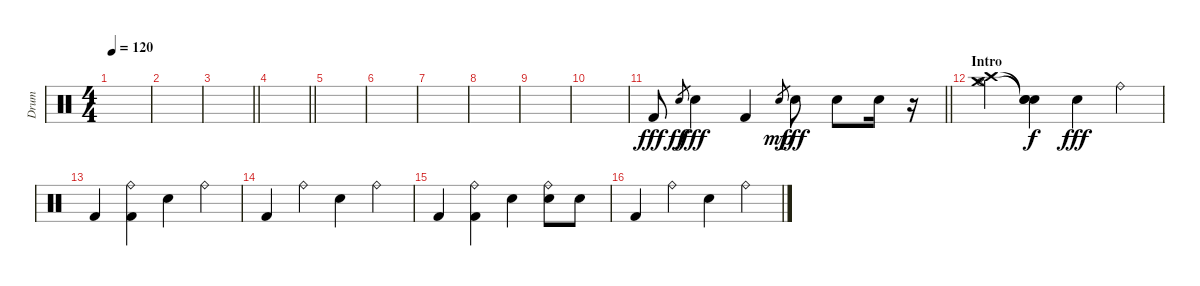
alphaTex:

\track ("Drum" "Drum") {instrument percussion}
\staff {score}
\articulation defaults
\ts (4 4)
\tempo 120
\clef neutral
\ks c
|
|
\barLineRight lightlight
|
\section ("" "")
\barLineRight lightlight
|
|
|
|
|
|
|
\barLineRight lightlight "Kick (hit) 2".8{dy fff} "Electric Snare (hit)".8{gr dy ff} "Electric Snare (hit)".4{dy fff} "Kick (hit) 2".4 "Electric Snare (hit)".8{gr dy mp} "Electric Snare (hit)".8{dy fff} "Electric Snare (hit)".8 "Electric Snare (hit)".16
r.16 |
\section ("" "Intro")
("Hi-Hat (open)" "Crash high (hit)" "Crash medium (hit)").4 ("Snare (hit)"{t} "Snare (hit)"{t} "Snare (hit)"{t}).4{dy f} "Electric Snare (hit)".4{dy fff} "Ride (bell)".4 |
"Kick (hit) 2".4 ("Kick (hit) 2" "Ride (bell)").4 "Electric Snare (hit)".4 "Ride (bell)".4 |
"Kick (hit) 2".4 "Ride (bell)".4 "Electric Snare (hit)".4 "Ride (bell)".4 |
"Kick (hit) 2".4 ("Kick (hit) 2" "Ride (bell)").4 "Electric Snare (hit)".4 ("Electric Snare (hit)" "Ride (bell)").8 "Electric Snare (hit)".8 |
"Kick (hit) 2".4 "Ride (bell)".4 "Electric Snare (hit)".4 "Ride (bell)".4
